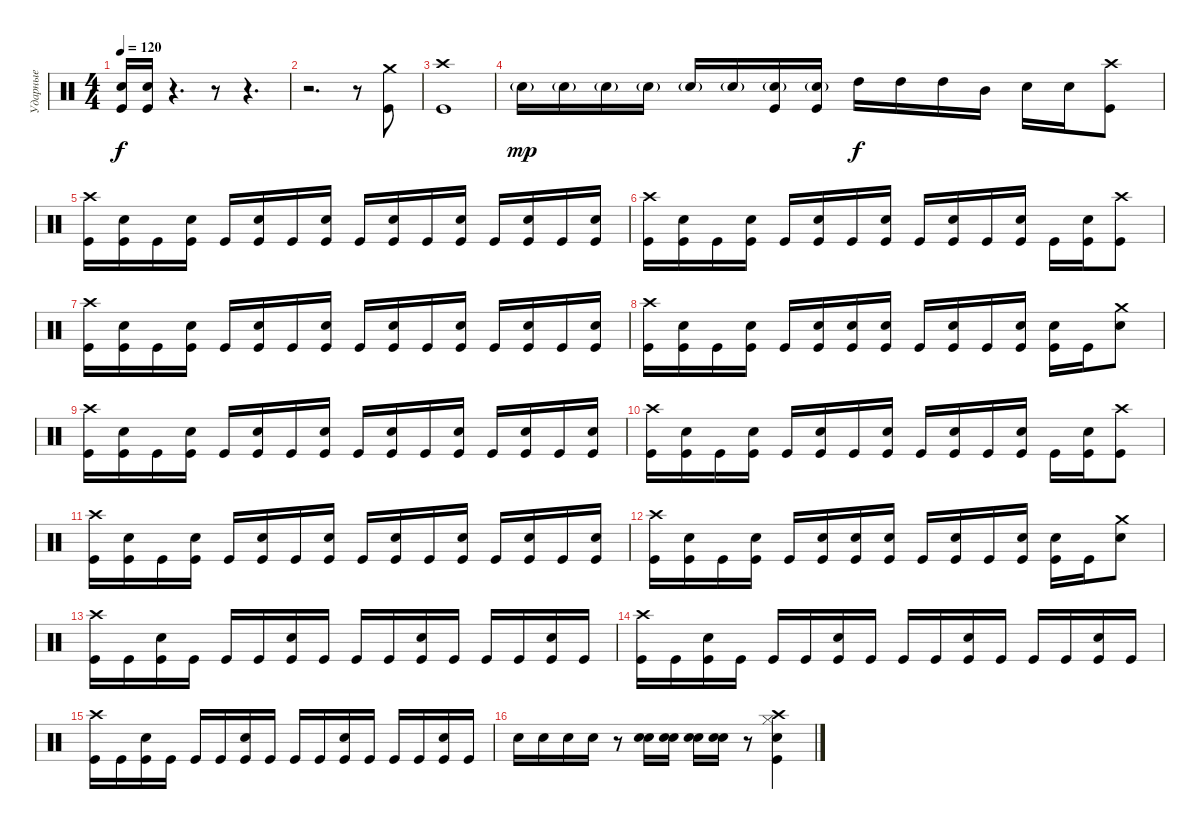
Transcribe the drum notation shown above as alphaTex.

\track ("Ударные" "Ударные") {instrument percussion}
\staff {score}
\articulation defaults
\ts (4 4)
\tempo 120
\clef neutral
\ks c
("Electric Snare (hit)" "Kick (hit)").16{dy f} ("Electric Snare (hit)" "Kick (hit)").16 r.4{d} r.8 r.4{d} |
r.2{d} r.8 ("Crash medium (hit)" "Kick (hit)").8 |
("Crash high (hit)" "Kick (hit)").1 |
"Electric Snare (hit)"{g}.16{dy mp} "Electric Snare (hit)"{g}.16 "Electric Snare (hit)"{g}.16 "Electric Snare (hit)"{g}.16 "Electric Snare (hit)"{g}.16 "Electric Snare (hit)"{g}.16 ("Electric Snare (hit)"{g} "Kick (hit)").16 ("Electric Snare (hit)"{g} "Kick (hit)").16 "High Tom (hit)".16{dy f} "High Tom (hit)".16 "High Tom (hit)".16 "Mid Tom (hit)".16 "Electric Snare (hit)".16 "Electric Snare (hit)".16 ("Crash high (hit)" "Kick (hit)").8 |
("Crash high (hit)" "Kick (hit)").16 ("Electric Snare (hit)" "Kick (hit)").16 "Kick (hit)".16 ("Electric Snare (hit)" "Kick (hit)").16 "Kick (hit)".16 ("Electric Snare (hit)" "Kick (hit)").16 "Kick (hit)".16 ("Electric Snare (hit)" "Kick (hit)").16 "Kick (hit)".16 ("Electric Snare (hit)" "Kick (hit)").16 "Kick (hit)".16 ("Electric Snare (hit)" "Kick (hit)").16 "Kick (hit)".16 ("Electric Snare (hit)" "Kick (hit)").16 "Kick (hit)".16 ("Electric Snare (hit)" "Kick (hit)").16 |
("Crash high (hit)" "Kick (hit)").16 ("Electric Snare (hit)" "Kick (hit)").16 "Kick (hit)".16 ("Electric Snare (hit)" "Kick (hit)").16 "Kick (hit)".16 ("Electric Snare (hit)" "Kick (hit)").16 "Kick (hit)".16 ("Electric Snare (hit)" "Kick (hit)").16 "Kick (hit)".16 ("Electric Snare (hit)" "Kick (hit)").16 "Kick (hit)".16 ("Electric Snare (hit)" "Kick (hit)").16 "Kick (hit)".16 ("Electric Snare (hit)" "Kick (hit)").16 ("Crash high (hit)" "Kick (hit)").8 |
("Crash high (hit)" "Kick (hit)").16 ("Electric Snare (hit)" "Kick (hit)").16 "Kick (hit)".16 ("Electric Snare (hit)" "Kick (hit)").16 "Kick (hit)".16 ("Electric Snare (hit)" "Kick (hit)").16 "Kick (hit)".16 ("Electric Snare (hit)" "Kick (hit)").16 "Kick (hit)".16 ("Electric Snare (hit)" "Kick (hit)").16 "Kick (hit)".16 ("Electric Snare (hit)" "Kick (hit)").16 "Kick (hit)".16 ("Electric Snare (hit)" "Kick (hit)").16 "Kick (hit)".16 ("Electric Snare (hit)" "Kick (hit)").16 |
("Crash high (hit)" "Kick (hit)").16 ("Electric Snare (hit)" "Kick (hit)").16 "Kick (hit)".16 ("Electric Snare (hit)" "Kick (hit)").16 "Kick (hit)".16 ("Electric Snare (hit)" "Kick (hit)").16 ("Electric Snare (hit)" "Kick (hit)").16 ("Electric Snare (hit)" "Kick (hit)").16 "Kick (hit)".16 ("Electric Snare (hit)" "Kick (hit)").16 "Kick (hit)".16 ("Electric Snare (hit)" "Kick (hit)").16 ("Electric Snare (hit)" "Kick (hit)").16 "Kick (hit)".16 ("Crash medium (hit)" "Electric Snare (hit)").8 |
("Crash high (hit)" "Kick (hit)").16 ("Electric Snare (hit)" "Kick (hit)").16 "Kick (hit)".16 ("Electric Snare (hit)" "Kick (hit)").16 "Kick (hit)".16 ("Electric Snare (hit)" "Kick (hit)").16 "Kick (hit)".16 ("Electric Snare (hit)" "Kick (hit)").16 "Kick (hit)".16 ("Electric Snare (hit)" "Kick (hit)").16 "Kick (hit)".16 ("Electric Snare (hit)" "Kick (hit)").16 "Kick (hit)".16 ("Electric Snare (hit)" "Kick (hit)").16 "Kick (hit)".16 ("Electric Snare (hit)" "Kick (hit)").16 |
("Crash high (hit)" "Kick (hit)").16 ("Electric Snare (hit)" "Kick (hit)").16 "Kick (hit)".16 ("Electric Snare (hit)" "Kick (hit)").16 "Kick (hit)".16 ("Electric Snare (hit)" "Kick (hit)").16 "Kick (hit)".16 ("Electric Snare (hit)" "Kick (hit)").16 "Kick (hit)".16 ("Electric Snare (hit)" "Kick (hit)").16 "Kick (hit)".16 ("Electric Snare (hit)" "Kick (hit)").16 "Kick (hit)".16 ("Electric Snare (hit)" "Kick (hit)").16 ("Crash high (hit)" "Kick (hit)").8 |
("Crash high (hit)" "Kick (hit)").16 ("Electric Snare (hit)" "Kick (hit)").16 "Kick (hit)".16 ("Electric Snare (hit)" "Kick (hit)").16 "Kick (hit)".16 ("Electric Snare (hit)" "Kick (hit)").16 "Kick (hit)".16 ("Electric Snare (hit)" "Kick (hit)").16 "Kick (hit)".16 ("Electric Snare (hit)" "Kick (hit)").16 "Kick (hit)".16 ("Electric Snare (hit)" "Kick (hit)").16 "Kick (hit)".16 ("Electric Snare (hit)" "Kick (hit)").16 "Kick (hit)".16 ("Electric Snare (hit)" "Kick (hit)").16 |
("Crash high (hit)" "Kick (hit)").16 ("Electric Snare (hit)" "Kick (hit)").16 "Kick (hit)".16 ("Electric Snare (hit)" "Kick (hit)").16 "Kick (hit)".16 ("Electric Snare (hit)" "Kick (hit)").16 ("Electric Snare (hit)" "Kick (hit)").16 ("Electric Snare (hit)" "Kick (hit)").16 "Kick (hit)".16 ("Electric Snare (hit)" "Kick (hit)").16 "Kick (hit)".16 ("Electric Snare (hit)" "Kick (hit)").16 ("Electric Snare (hit)" "Kick (hit)").16 "Kick (hit)".16 ("Crash medium (hit)" "Electric Snare (hit)").8 |
("Crash high (hit)" "Kick (hit)").16 "Kick (hit)".16 ("Electric Snare (hit)" "Kick (hit)").16 "Kick (hit)".16 "Kick (hit)".16 "Kick (hit)".16 ("Electric Snare (hit)" "Kick (hit)").16 "Kick (hit)".16 "Kick (hit)".16 "Kick (hit)".16 ("Electric Snare (hit)" "Kick (hit)").16 "Kick (hit)".16 "Kick (hit)".16 "Kick (hit)".16 ("Electric Snare (hit)" "Kick (hit)").16 "Kick (hit)".16 |
("Crash high (hit)" "Kick (hit)").16 "Kick (hit)".16 ("Electric Snare (hit)" "Kick (hit)").16 "Kick (hit)".16 "Kick (hit)".16 "Kick (hit)".16 ("Electric Snare (hit)" "Kick (hit)").16 "Kick (hit)".16 "Kick (hit)".16 "Kick (hit)".16 ("Electric Snare (hit)" "Kick (hit)").16 "Kick (hit)".16 "Kick (hit)".16 "Kick (hit)".16 ("Electric Snare (hit)" "Kick (hit)").16 "Kick (hit)".16 |
("Crash high (hit)" "Kick (hit)").16 "Kick (hit)".16 ("Electric Snare (hit)" "Kick (hit)").16 "Kick (hit)".16 "Kick (hit)".16 "Kick (hit)".16 ("Electric Snare (hit)" "Kick (hit)").16 "Kick (hit)".16 "Kick (hit)".16 "Kick (hit)".16 ("Electric Snare (hit)" "Kick (hit)").16 "Kick (hit)".16 "Kick (hit)".16 "Kick (hit)".16 ("Electric Snare (hit)" "Kick (hit)").16 "Kick (hit)".16 |
"Electric Snare (hit)".16 "Electric Snare (hit)".16 "Electric Snare (hit)".16 "Electric Snare (hit)".16 r.8 ("Electric Snare (hit)" "Electric Snare (hit)").16 ("Electric Snare (hit)" "Electric Snare (hit)").16 ("Electric Snare (hit)" "Electric Snare (hit)").16 ("Electric Snare (hit)" "Electric Snare (hit)").16 r.8 ("Crash high (hit)" "Hi-Hat (closed)" "Electric Snare (hit)" "Kick (hit)").4
